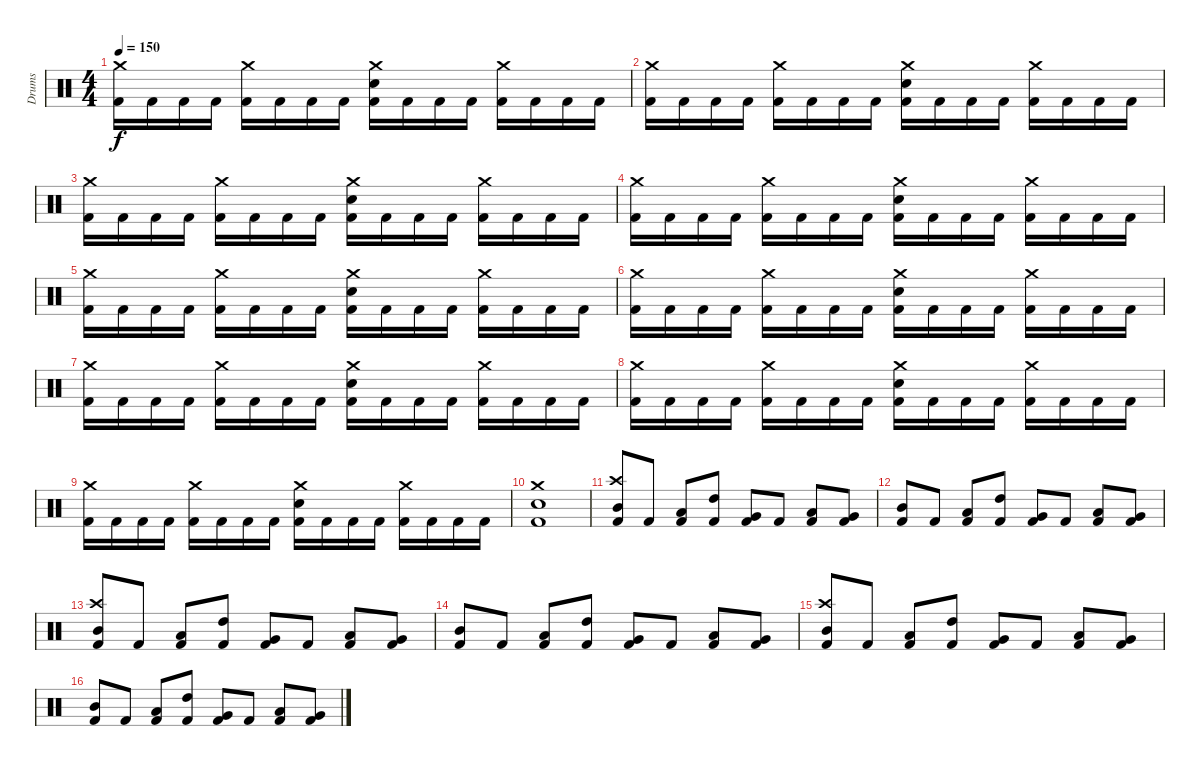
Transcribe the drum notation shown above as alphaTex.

\track ("Drums" "Drums") {instrument percussion}
\staff {score}
\articulation defaults
\ts (4 4)
\tempo 150
\clef neutral
\ks c
("Crash medium (hit)" "Kick (hit) 2").16{dy f} "Kick (hit) 2".16 "Kick (hit) 2".16 "Kick (hit) 2".16 ("Crash medium (hit)" "Kick (hit) 2").16 "Kick (hit) 2".16 "Kick (hit) 2".16 "Kick (hit) 2".16 ("Crash medium (hit)" "Snare (hit) 2" "Kick (hit) 2").16 "Kick (hit) 2".16 "Kick (hit) 2".16 "Kick (hit) 2".16 ("Crash medium (hit)" "Kick (hit) 2").16 "Kick (hit) 2".16 "Kick (hit) 2".16 "Kick (hit) 2".16 |
("Crash medium (hit)" "Kick (hit) 2").16 "Kick (hit) 2".16 "Kick (hit) 2".16 "Kick (hit) 2".16 ("Crash medium (hit)" "Kick (hit) 2").16 "Kick (hit) 2".16 "Kick (hit) 2".16 "Kick (hit) 2".16 ("Crash medium (hit)" "Snare (hit) 2" "Kick (hit) 2").16 "Kick (hit) 2".16 "Kick (hit) 2".16 "Kick (hit) 2".16 ("Crash medium (hit)" "Kick (hit) 2").16 "Kick (hit) 2".16 "Kick (hit) 2".16 "Kick (hit) 2".16 |
("Crash medium (hit)" "Kick (hit) 2").16 "Kick (hit) 2".16 "Kick (hit) 2".16 "Kick (hit) 2".16 ("Crash medium (hit)" "Kick (hit) 2").16 "Kick (hit) 2".16 "Kick (hit) 2".16 "Kick (hit) 2".16 ("Crash medium (hit)" "Snare (hit) 2" "Kick (hit) 2").16 "Kick (hit) 2".16 "Kick (hit) 2".16 "Kick (hit) 2".16 ("Crash medium (hit)" "Kick (hit) 2").16 "Kick (hit) 2".16 "Kick (hit) 2".16 "Kick (hit) 2".16 |
("Crash medium (hit)" "Kick (hit) 2").16 "Kick (hit) 2".16 "Kick (hit) 2".16 "Kick (hit) 2".16 ("Crash medium (hit)" "Kick (hit) 2").16 "Kick (hit) 2".16 "Kick (hit) 2".16 "Kick (hit) 2".16 ("Crash medium (hit)" "Snare (hit) 2" "Kick (hit) 2").16 "Kick (hit) 2".16 "Kick (hit) 2".16 "Kick (hit) 2".16 ("Crash medium (hit)" "Kick (hit) 2").16 "Kick (hit) 2".16 "Kick (hit) 2".16 "Kick (hit) 2".16 |
("Crash medium (hit)" "Kick (hit) 2").16 "Kick (hit) 2".16 "Kick (hit) 2".16 "Kick (hit) 2".16 ("Crash medium (hit)" "Kick (hit) 2").16 "Kick (hit) 2".16 "Kick (hit) 2".16 "Kick (hit) 2".16 ("Crash medium (hit)" "Snare (hit) 2" "Kick (hit) 2").16 "Kick (hit) 2".16 "Kick (hit) 2".16 "Kick (hit) 2".16 ("Crash medium (hit)" "Kick (hit) 2").16 "Kick (hit) 2".16 "Kick (hit) 2".16 "Kick (hit) 2".16 |
("Crash medium (hit)" "Kick (hit) 2").16 "Kick (hit) 2".16 "Kick (hit) 2".16 "Kick (hit) 2".16 ("Crash medium (hit)" "Kick (hit) 2").16 "Kick (hit) 2".16 "Kick (hit) 2".16 "Kick (hit) 2".16 ("Crash medium (hit)" "Snare (hit) 2" "Kick (hit) 2").16 "Kick (hit) 2".16 "Kick (hit) 2".16 "Kick (hit) 2".16 ("Crash medium (hit)" "Kick (hit) 2").16 "Kick (hit) 2".16 "Kick (hit) 2".16 "Kick (hit) 2".16 |
("Crash medium (hit)" "Kick (hit) 2").16 "Kick (hit) 2".16 "Kick (hit) 2".16 "Kick (hit) 2".16 ("Crash medium (hit)" "Kick (hit) 2").16 "Kick (hit) 2".16 "Kick (hit) 2".16 "Kick (hit) 2".16 ("Crash medium (hit)" "Snare (hit) 2" "Kick (hit) 2").16 "Kick (hit) 2".16 "Kick (hit) 2".16 "Kick (hit) 2".16 ("Crash medium (hit)" "Kick (hit) 2").16 "Kick (hit) 2".16 "Kick (hit) 2".16 "Kick (hit) 2".16 |
("Crash medium (hit)" "Kick (hit) 2").16 "Kick (hit) 2".16 "Kick (hit) 2".16 "Kick (hit) 2".16 ("Crash medium (hit)" "Kick (hit) 2").16 "Kick (hit) 2".16 "Kick (hit) 2".16 "Kick (hit) 2".16 ("Crash medium (hit)" "Snare (hit) 2" "Kick (hit) 2").16 "Kick (hit) 2".16 "Kick (hit) 2".16 "Kick (hit) 2".16 ("Crash medium (hit)" "Kick (hit) 2").16 "Kick (hit) 2".16 "Kick (hit) 2".16 "Kick (hit) 2".16 |
("Crash medium (hit)" "Kick (hit) 2").16 "Kick (hit) 2".16 "Kick (hit) 2".16 "Kick (hit) 2".16 ("Crash medium (hit)" "Kick (hit) 2").16 "Kick (hit) 2".16 "Kick (hit) 2".16 "Kick (hit) 2".16 ("Crash medium (hit)" "Snare (hit) 2" "Kick (hit) 2").16 "Kick (hit) 2".16 "Kick (hit) 2".16 "Kick (hit) 2".16 ("Crash medium (hit)" "Kick (hit) 2").16 "Kick (hit) 2".16 "Kick (hit) 2".16 "Kick (hit) 2".16 |
("Crash medium (hit)" "Snare (hit) 2" "Kick (hit) 2").1 |
("Crash high (hit)" "Mid Tom (hit)" "Kick (hit) 2").8 "Kick (hit) 2".8 ("Low Tom (hit)" "Kick (hit) 2").8 ("High Tom (hit)" "Kick (hit) 2").8 ("Very Low Tom (hit)" "Kick (hit) 2").8 "Kick (hit) 2".8 ("Low Tom (hit)" "Kick (hit) 2").8 ("Very Low Tom (hit)" "Kick (hit) 2").8 |
("Mid Tom (hit)" "Kick (hit) 2").8 "Kick (hit) 2".8 ("Low Tom (hit)" "Kick (hit) 2").8 ("High Tom (hit)" "Kick (hit) 2").8 ("Very Low Tom (hit)" "Kick (hit) 2").8 "Kick (hit) 2".8 ("Low Tom (hit)" "Kick (hit) 2").8 ("Very Low Tom (hit)" "Kick (hit) 2").8 |
("Crash high (hit)" "Mid Tom (hit)" "Kick (hit) 2").8 "Kick (hit) 2".8 ("Low Tom (hit)" "Kick (hit) 2").8 ("High Tom (hit)" "Kick (hit) 2").8 ("Very Low Tom (hit)" "Kick (hit) 2").8 "Kick (hit) 2".8 ("Low Tom (hit)" "Kick (hit) 2").8 ("Very Low Tom (hit)" "Kick (hit) 2").8 |
("Mid Tom (hit)" "Kick (hit) 2").8 "Kick (hit) 2".8 ("Low Tom (hit)" "Kick (hit) 2").8 ("High Tom (hit)" "Kick (hit) 2").8 ("Very Low Tom (hit)" "Kick (hit) 2").8 "Kick (hit) 2".8 ("Low Tom (hit)" "Kick (hit) 2").8 ("Very Low Tom (hit)" "Kick (hit) 2").8 |
("Crash high (hit)" "Mid Tom (hit)" "Kick (hit) 2").8 "Kick (hit) 2".8 ("Low Tom (hit)" "Kick (hit) 2").8 ("High Tom (hit)" "Kick (hit) 2").8 ("Very Low Tom (hit)" "Kick (hit) 2").8 "Kick (hit) 2".8 ("Low Tom (hit)" "Kick (hit) 2").8 ("Very Low Tom (hit)" "Kick (hit) 2").8 |
("Mid Tom (hit)" "Kick (hit) 2").8 "Kick (hit) 2".8 ("Low Tom (hit)" "Kick (hit) 2").8 ("High Tom (hit)" "Kick (hit) 2").8 ("Very Low Tom (hit)" "Kick (hit) 2").8 "Kick (hit) 2".8 ("Low Tom (hit)" "Kick (hit) 2").8 ("Very Low Tom (hit)" "Kick (hit) 2").8
